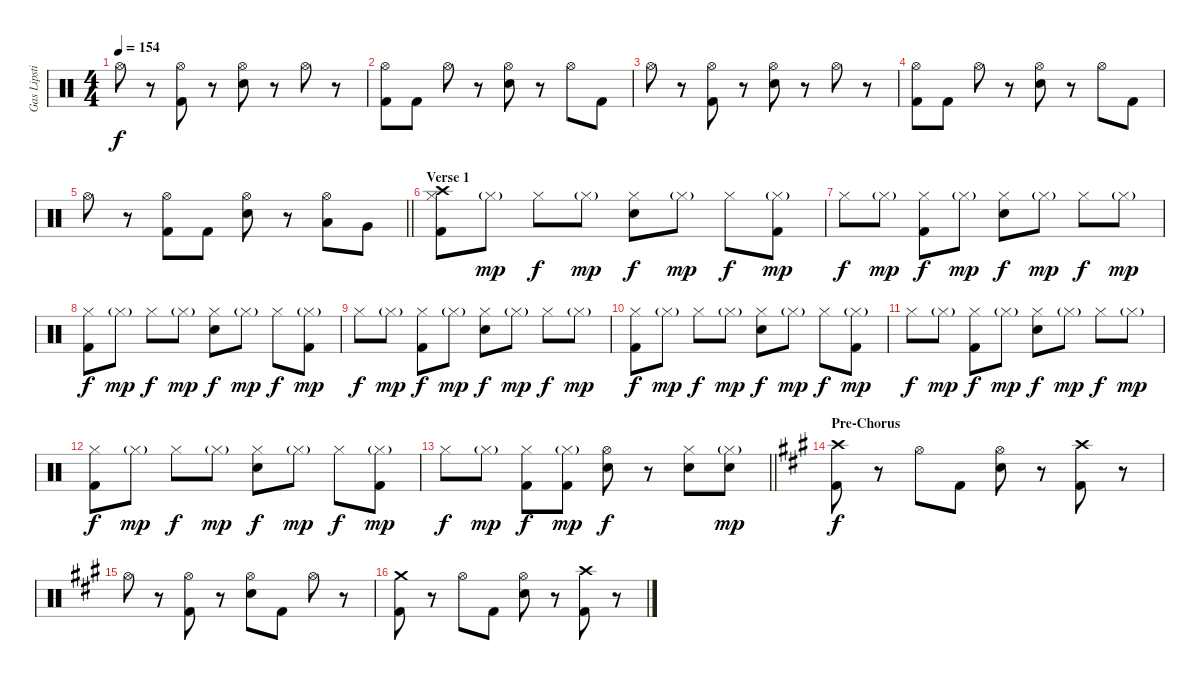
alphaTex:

\track ("Gas Lipstick (Drums)" "Gas Lipsti") {instrument percussion}
\staff {score}
\articulation defaults
\ts (4 4)
\tempo 154
\clef neutral
\ks c "Hi-Hat (open)".8{dy f}
r.8 ("Hi-Hat (open)" "Kick (hit) 2").8 r.8 ("Hi-Hat (open)" "Snare (hit) 2").8 r.8 "Hi-Hat (open)".8 r.8 |
("Hi-Hat (open)" "Kick (hit) 2").8 "Kick (hit) 2".8 "Hi-Hat (open)".8 r.8 ("Hi-Hat (open)" "Snare (hit) 2").8 r.8 "Hi-Hat (open)".8 "Kick (hit) 2".8 |
"Hi-Hat (open)".8 r.8 ("Hi-Hat (open)" "Kick (hit) 2").8 r.8 ("Hi-Hat (open)" "Snare (hit) 2").8 r.8 "Hi-Hat (open)".8 r.8 |
("Hi-Hat (open)" "Kick (hit) 2").8 "Kick (hit) 2".8 "Hi-Hat (open)".8 r.8 ("Hi-Hat (open)" "Snare (hit) 2").8 r.8 "Hi-Hat (open)".8 "Kick (hit) 2".8 |
\barLineRight lightlight "Hi-Hat (open)".8
r.8 ("Hi-Hat (open)" "Kick (hit) 2").8 "Kick (hit) 2".8 ("Hi-Hat (open)" "Snare (hit) 2").8 r.8 ("Hi-Hat (open)" "Low Tom (hit)").8 "Very Low Tom (hit)".8 |
\section ("" "Verse 1")
("Crash high (hit)" "Hi-Hat (closed)" "Kick (hit) 2").8 "Hi-Hat (closed)"{g}.8{dy mp} "Hi-Hat (closed)".8{dy f} "Hi-Hat (closed)"{g}.8{dy mp} ("Hi-Hat (closed)" "Snare (hit) 2").8{dy f} "Hi-Hat (closed)"{g}.8{dy mp} "Hi-Hat (closed)".8{dy f} ("Hi-Hat (closed)"{g} "Kick (hit) 2").8{dy mp} |
"Hi-Hat (closed)".8{dy f} "Hi-Hat (closed)"{g}.8{dy mp} ("Hi-Hat (closed)" "Kick (hit) 2").8{dy f} "Hi-Hat (closed)"{g}.8{dy mp} ("Hi-Hat (closed)" "Snare (hit) 2").8{dy f} "Hi-Hat (closed)"{g}.8{dy mp} "Hi-Hat (closed)".8{dy f} "Hi-Hat (closed)"{g}.8{dy mp} |
("Hi-Hat (closed)" "Kick (hit) 2").8{dy f} "Hi-Hat (closed)"{g}.8{dy mp} "Hi-Hat (closed)".8{dy f} "Hi-Hat (closed)"{g}.8{dy mp} ("Hi-Hat (closed)" "Snare (hit) 2").8{dy f} "Hi-Hat (closed)"{g}.8{dy mp} "Hi-Hat (closed)".8{dy f} ("Hi-Hat (closed)"{g} "Kick (hit) 2").8{dy mp} |
"Hi-Hat (closed)".8{dy f} "Hi-Hat (closed)"{g}.8{dy mp} ("Hi-Hat (closed)" "Kick (hit) 2").8{dy f} "Hi-Hat (closed)"{g}.8{dy mp} ("Hi-Hat (closed)" "Snare (hit) 2").8{dy f} "Hi-Hat (closed)"{g}.8{dy mp} "Hi-Hat (closed)".8{dy f} "Hi-Hat (closed)"{g}.8{dy mp} |
("Hi-Hat (closed)" "Kick (hit) 2").8{dy f} "Hi-Hat (closed)"{g}.8{dy mp} "Hi-Hat (closed)".8{dy f} "Hi-Hat (closed)"{g}.8{dy mp} ("Hi-Hat (closed)" "Snare (hit) 2").8{dy f} "Hi-Hat (closed)"{g}.8{dy mp} "Hi-Hat (closed)".8{dy f} ("Hi-Hat (closed)"{g} "Kick (hit) 2").8{dy mp} |
"Hi-Hat (closed)".8{dy f} "Hi-Hat (closed)"{g}.8{dy mp} ("Hi-Hat (closed)" "Kick (hit) 2").8{dy f} "Hi-Hat (closed)"{g}.8{dy mp} ("Hi-Hat (closed)" "Snare (hit) 2").8{dy f} "Hi-Hat (closed)"{g}.8{dy mp} "Hi-Hat (closed)".8{dy f} "Hi-Hat (closed)"{g}.8{dy mp} |
("Hi-Hat (closed)" "Kick (hit) 2").8{dy f} "Hi-Hat (closed)"{g}.8{dy mp} "Hi-Hat (closed)".8{dy f} "Hi-Hat (closed)"{g}.8{dy mp} ("Hi-Hat (closed)" "Snare (hit) 2").8{dy f} "Hi-Hat (closed)"{g}.8{dy mp} "Hi-Hat (closed)".8{dy f} ("Hi-Hat (closed)"{g} "Kick (hit) 2").8{dy mp} |
\barLineRight lightlight "Hi-Hat (closed)".8{dy f} "Hi-Hat (closed)"{g}.8{dy mp}
("Hi-Hat (closed)" "Kick (hit) 2").8{dy f} ("Hi-Hat (closed)"{g} "Kick (hit) 2").8{dy mp} ("Hi-Hat (open)" "Snare (hit) 2").8{dy f} r.8 ("Hi-Hat (closed)" "Snare (hit) 2").8 ("Hi-Hat (closed)"{g} "Snare (hit) 2").8{dy mp} |
\section ("" "Pre-Chorus")
\ks a
("Crash high (hit)" "Kick (hit) 2").8{dy f} r.8 "Hi-Hat (open)".8 "Kick (hit) 2".8 ("Hi-Hat (open)" "Snare (hit) 2").8 r.8 ("Crash high (hit)" "Kick (hit) 2").8 r.8 |
"Hi-Hat (open)".8 r.8 ("Hi-Hat (open)" "Kick (hit) 2").8 r.8 ("Hi-Hat (open)" "Snare (hit) 2").8 "Kick (hit) 2".8 "Hi-Hat (open)".8 r.8 |
("Crash medium (hit)" "Kick (hit) 2").8 r.8 "Hi-Hat (open)".8 "Kick (hit) 2".8 ("Hi-Hat (open)" "Snare (hit) 2").8 r.8 ("Crash high (hit)" "Kick (hit) 2").8 r.8
